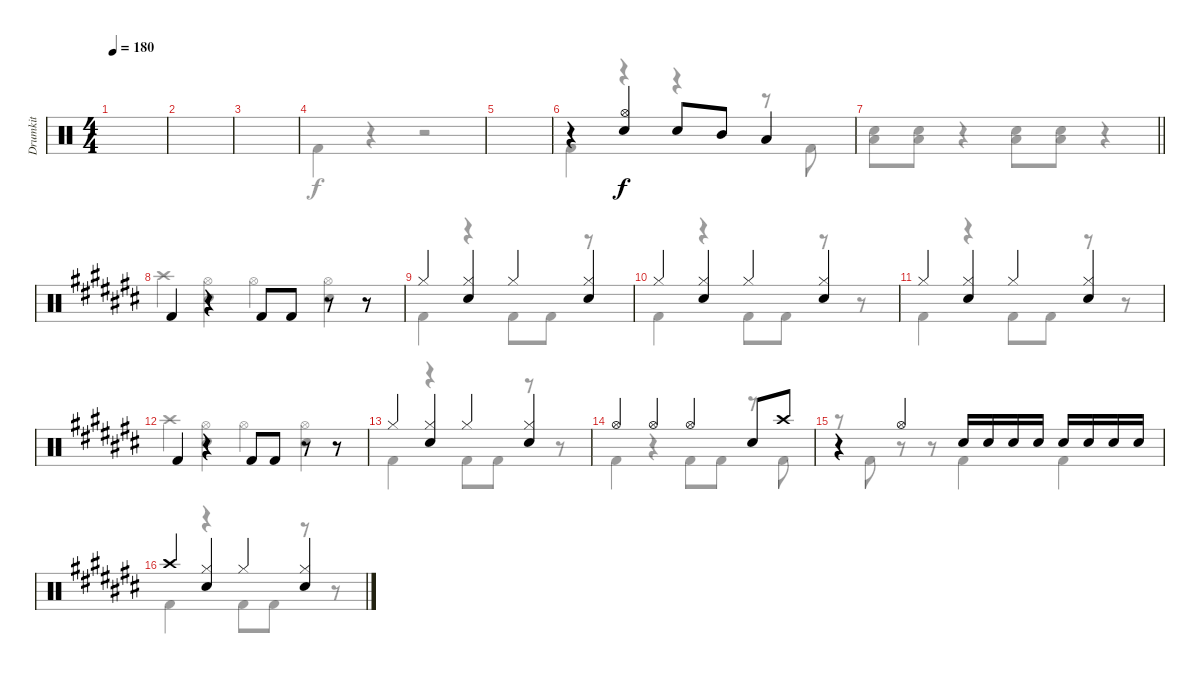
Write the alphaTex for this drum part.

\track ("Drumkit" "Drumkit") {instrument percussion}
\staff {score}
\articulation defaults
\voice
\ts (4 4)
\tempo 180
\clef neutral
\ks c
|
|
|
|
|
r.4 ("Snare (hit) 2" "Hi-Hat (open)").4 "Snare (hit) 2".8 "Mid Tom (hit)".8 "Low Tom (hit)".4 |
\barLineRight lightlight
|
\ks c# "Kick (hit) 2".4
r.4 "Kick (hit) 2".8 "Kick (hit) 2".8 r.8 r.8 |
"Hi-Hat (closed)".4 ("Hi-Hat (closed)" "Snare (hit) 2").4 "Hi-Hat (closed)".4 ("Hi-Hat (closed)" "Snare (hit) 2").4 |
"Hi-Hat (closed)".4 ("Hi-Hat (closed)" "Snare (hit) 2").4 "Hi-Hat (closed)".4 ("Hi-Hat (closed)" "Snare (hit) 2").4 |
"Hi-Hat (closed)".4 ("Hi-Hat (closed)" "Snare (hit) 2").4 "Hi-Hat (closed)".4 ("Hi-Hat (closed)" "Snare (hit) 2").4 |
"Kick (hit) 2".4 r.4 "Kick (hit) 2".8 "Kick (hit) 2".8 r.8 r.8 |
"Hi-Hat (closed)".4 ("Hi-Hat (closed)" "Snare (hit) 2").4 "Hi-Hat (closed)".4 ("Hi-Hat (closed)" "Snare (hit) 2").4 |
"Hi-Hat (open)".4 "Hi-Hat (open)".4 "Hi-Hat (open)".4 "Snare (hit) 2".8 "Crash high (hit)".8 |
r.4 "Hi-Hat (open)".4 "Snare (hit) 2".16 "Snare (hit) 2".16 "Snare (hit) 2".16 "Snare (hit) 2".16 "Snare (hit) 2".16 "Snare (hit) 2".16 "Snare (hit) 2".16 "Snare (hit) 2".16 |
"Crash high (hit)".4 ("Hi-Hat (closed)" "Snare (hit) 2").4 "Hi-Hat (closed)".4 ("Hi-Hat (closed)" "Snare (hit) 2").4
\voice
\clef neutral
\ottava regular
\simile none
\ks c
|
|
|
"Kick (hit) 2".4 r.4 r.2 |
|
"Kick (hit) 2".4 r.4 r.4 r.8 "Kick (hit) 2".8 |
\barLineRight lightlight
("Low Tom (hit)" "Snare (hit) 2").8 ("Snare (hit) 2" "Low Tom (hit)").8 r.4 ("Low Tom (hit)" "Snare (hit) 2").8 ("Low Tom (hit)" "Snare (hit) 2").8 r.4 |
\ks c# "Crash high (hit)".4
("Hi-Hat (open)" "Snare (hit) 2").4 "Hi-Hat (open)".4 ("Hi-Hat (open)" "Snare (hit) 2").4 |
"Kick (hit) 2".4 r.4 "Kick (hit) 2".8 "Kick (hit) 2".8 r.8 |
"Kick (hit) 2".4 r.4 "Kick (hit) 2".8 "Kick (hit) 2".8 r.8 r.8 |
"Kick (hit) 2".4 r.4 "Kick (hit) 2".8 "Kick (hit) 2".8 r.8 r.8 |
"Crash high (hit)".4 ("Hi-Hat (open)" "Snare (hit) 2").4 "Hi-Hat (open)".4 ("Hi-Hat (open)" "Snare (hit) 2").4 |
"Kick (hit) 2".4 r.4 "Kick (hit) 2".8 "Kick (hit) 2".8 r.8 r.8 |
"Kick (hit) 2".4 r.4 "Kick (hit) 2".8 "Kick (hit) 2".8 r.8 "Kick (hit) 2".8 |
r.8 "Kick (hit) 2".8 r.8 r.8 "Kick (hit) 2".4 "Kick (hit) 2".4 |
"Kick (hit) 2".4 r.4 "Kick (hit) 2".8 "Kick (hit) 2".8 r.8 r.8
